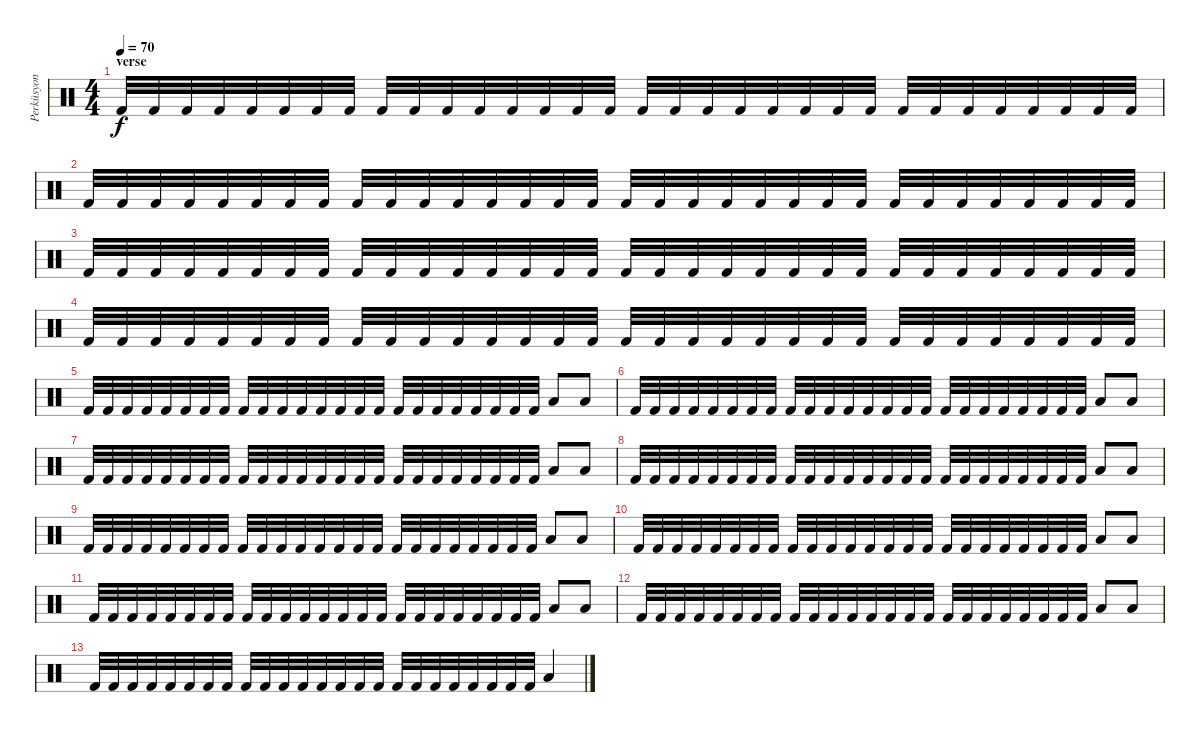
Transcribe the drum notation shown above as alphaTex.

\track ("Perküsyon" "Perküsyon") {instrument percussion}
\staff {score}
\articulation defaults
\ts (4 4)
\section ("" "verse")
\tempo 70
\clef neutral
\ks c "Kick (hit) 2".32{dy f volume 10} "Kick (hit) 2".32 "Kick (hit) 2".32 "Kick (hit) 2".32 "Kick (hit) 2".32{volume 13} "Kick (hit) 2".32 "Kick (hit) 2".32 "Kick (hit) 2".32 "Kick (hit) 2".32{volume 10} "Kick (hit) 2".32 "Kick (hit) 2".32 "Kick (hit) 2".32 "Kick (hit) 2".32{volume 8} "Kick (hit) 2".32 "Kick (hit) 2".32 "Kick (hit) 2".32 "Kick (hit) 2".32{volume 5} "Kick (hit) 2".32 "Kick (hit) 2".32 "Kick (hit) 2".32 "Kick (hit) 2".32{volume 3} "Kick (hit) 2".32 "Kick (hit) 2".32 "Kick (hit) 2".32 "Kick (hit) 2".32{volume 1} "Kick (hit) 2".32 "Kick (hit) 2".32 "Kick (hit) 2".32 "Kick (hit) 2".32{volume 0} "Kick (hit) 2".32 "Kick (hit) 2".32 "Kick (hit) 2".32
|
"Kick (hit) 2".32{volume 10} "Kick (hit) 2".32 "Kick (hit) 2".32 "Kick (hit) 2".32 "Kick (hit) 2".32{volume 13} "Kick (hit) 2".32 "Kick (hit) 2".32 "Kick (hit) 2".32 "Kick (hit) 2".32{volume 10} "Kick (hit) 2".32 "Kick (hit) 2".32 "Kick (hit) 2".32 "Kick (hit) 2".32{volume 8} "Kick (hit) 2".32 "Kick (hit) 2".32 "Kick (hit) 2".32 "Kick (hit) 2".32{volume 5} "Kick (hit) 2".32 "Kick (hit) 2".32 "Kick (hit) 2".32 "Kick (hit) 2".32{volume 3} "Kick (hit) 2".32 "Kick (hit) 2".32 "Kick (hit) 2".32 "Kick (hit) 2".32{volume 1} "Kick (hit) 2".32 "Kick (hit) 2".32 "Kick (hit) 2".32 "Kick (hit) 2".32{volume 0} "Kick (hit) 2".32 "Kick (hit) 2".32 "Kick (hit) 2".32 |
"Kick (hit) 2".32{volume 10} "Kick (hit) 2".32 "Kick (hit) 2".32 "Kick (hit) 2".32 "Kick (hit) 2".32{volume 13} "Kick (hit) 2".32 "Kick (hit) 2".32 "Kick (hit) 2".32 "Kick (hit) 2".32{volume 10} "Kick (hit) 2".32 "Kick (hit) 2".32 "Kick (hit) 2".32 "Kick (hit) 2".32{volume 8} "Kick (hit) 2".32 "Kick (hit) 2".32 "Kick (hit) 2".32 "Kick (hit) 2".32{volume 5} "Kick (hit) 2".32 "Kick (hit) 2".32 "Kick (hit) 2".32 "Kick (hit) 2".32{volume 3} "Kick (hit) 2".32 "Kick (hit) 2".32 "Kick (hit) 2".32 "Kick (hit) 2".32{volume 1} "Kick (hit) 2".32 "Kick (hit) 2".32 "Kick (hit) 2".32 "Kick (hit) 2".32{volume 0} "Kick (hit) 2".32 "Kick (hit) 2".32 "Kick (hit) 2".32 |
"Kick (hit) 2".32{volume 10} "Kick (hit) 2".32 "Kick (hit) 2".32 "Kick (hit) 2".32 "Kick (hit) 2".32{volume 13} "Kick (hit) 2".32 "Kick (hit) 2".32 "Kick (hit) 2".32 "Kick (hit) 2".32{volume 10} "Kick (hit) 2".32 "Kick (hit) 2".32 "Kick (hit) 2".32 "Kick (hit) 2".32{volume 8} "Kick (hit) 2".32 "Kick (hit) 2".32 "Kick (hit) 2".32 "Kick (hit) 2".32{volume 5} "Kick (hit) 2".32 "Kick (hit) 2".32 "Kick (hit) 2".32 "Kick (hit) 2".32{volume 3} "Kick (hit) 2".32 "Kick (hit) 2".32 "Kick (hit) 2".32 "Kick (hit) 2".32{volume 1} "Kick (hit) 2".32 "Kick (hit) 2".32 "Kick (hit) 2".32 "Kick (hit) 2".32{volume 0} "Kick (hit) 2".32 "Kick (hit) 2".32 "Kick (hit) 2".32 |
"Kick (hit) 2".32{volume 10} "Kick (hit) 2".32 "Kick (hit) 2".32 "Kick (hit) 2".32 "Kick (hit) 2".32{volume 13} "Kick (hit) 2".32 "Kick (hit) 2".32 "Kick (hit) 2".32 "Kick (hit) 2".32{volume 10} "Kick (hit) 2".32 "Kick (hit) 2".32 "Kick (hit) 2".32 "Kick (hit) 2".32{volume 8} "Kick (hit) 2".32 "Kick (hit) 2".32 "Kick (hit) 2".32 "Kick (hit) 2".32{volume 5} "Kick (hit) 2".32 "Kick (hit) 2".32 "Kick (hit) 2".32 "Kick (hit) 2".32{volume 3} "Kick (hit) 2".32 "Kick (hit) 2".32 "Kick (hit) 2".32 "Low Floor Tom (hit)".8{volume 13} "Low Floor Tom (hit)".8 |
"Kick (hit) 2".32{volume 10} "Kick (hit) 2".32 "Kick (hit) 2".32 "Kick (hit) 2".32 "Kick (hit) 2".32{volume 13} "Kick (hit) 2".32 "Kick (hit) 2".32 "Kick (hit) 2".32 "Kick (hit) 2".32{volume 10} "Kick (hit) 2".32 "Kick (hit) 2".32 "Kick (hit) 2".32 "Kick (hit) 2".32{volume 8} "Kick (hit) 2".32 "Kick (hit) 2".32 "Kick (hit) 2".32 "Kick (hit) 2".32{volume 5} "Kick (hit) 2".32 "Kick (hit) 2".32 "Kick (hit) 2".32 "Kick (hit) 2".32{volume 3} "Kick (hit) 2".32 "Kick (hit) 2".32 "Kick (hit) 2".32 "Low Floor Tom (hit)".8{volume 13} "Low Floor Tom (hit)".8 |
"Kick (hit) 2".32{volume 10} "Kick (hit) 2".32 "Kick (hit) 2".32 "Kick (hit) 2".32 "Kick (hit) 2".32{volume 13} "Kick (hit) 2".32 "Kick (hit) 2".32 "Kick (hit) 2".32 "Kick (hit) 2".32{volume 10} "Kick (hit) 2".32 "Kick (hit) 2".32 "Kick (hit) 2".32 "Kick (hit) 2".32{volume 8} "Kick (hit) 2".32 "Kick (hit) 2".32 "Kick (hit) 2".32 "Kick (hit) 2".32{volume 5} "Kick (hit) 2".32 "Kick (hit) 2".32 "Kick (hit) 2".32 "Kick (hit) 2".32{volume 3} "Kick (hit) 2".32 "Kick (hit) 2".32 "Kick (hit) 2".32 "Low Floor Tom (hit)".8{volume 13} "Low Floor Tom (hit)".8 |
"Kick (hit) 2".32{volume 10} "Kick (hit) 2".32 "Kick (hit) 2".32 "Kick (hit) 2".32 "Kick (hit) 2".32{volume 13} "Kick (hit) 2".32 "Kick (hit) 2".32 "Kick (hit) 2".32 "Kick (hit) 2".32{volume 10} "Kick (hit) 2".32 "Kick (hit) 2".32 "Kick (hit) 2".32 "Kick (hit) 2".32{volume 8} "Kick (hit) 2".32 "Kick (hit) 2".32 "Kick (hit) 2".32 "Kick (hit) 2".32{volume 5} "Kick (hit) 2".32 "Kick (hit) 2".32 "Kick (hit) 2".32 "Kick (hit) 2".32{volume 3} "Kick (hit) 2".32 "Kick (hit) 2".32 "Kick (hit) 2".32 "Low Floor Tom (hit)".8{volume 13} "Low Floor Tom (hit)".8 |
"Kick (hit) 2".32{volume 10} "Kick (hit) 2".32 "Kick (hit) 2".32 "Kick (hit) 2".32 "Kick (hit) 2".32{volume 13} "Kick (hit) 2".32 "Kick (hit) 2".32 "Kick (hit) 2".32 "Kick (hit) 2".32{volume 10} "Kick (hit) 2".32 "Kick (hit) 2".32 "Kick (hit) 2".32 "Kick (hit) 2".32{volume 8} "Kick (hit) 2".32 "Kick (hit) 2".32 "Kick (hit) 2".32 "Kick (hit) 2".32{volume 5} "Kick (hit) 2".32 "Kick (hit) 2".32 "Kick (hit) 2".32 "Kick (hit) 2".32{volume 3} "Kick (hit) 2".32 "Kick (hit) 2".32 "Kick (hit) 2".32 "Low Floor Tom (hit)".8{volume 13} "Low Floor Tom (hit)".8 |
"Kick (hit) 2".32{volume 10} "Kick (hit) 2".32 "Kick (hit) 2".32 "Kick (hit) 2".32 "Kick (hit) 2".32{volume 13} "Kick (hit) 2".32 "Kick (hit) 2".32 "Kick (hit) 2".32 "Kick (hit) 2".32{volume 10} "Kick (hit) 2".32 "Kick (hit) 2".32 "Kick (hit) 2".32 "Kick (hit) 2".32{volume 8} "Kick (hit) 2".32 "Kick (hit) 2".32 "Kick (hit) 2".32 "Kick (hit) 2".32{volume 5} "Kick (hit) 2".32 "Kick (hit) 2".32 "Kick (hit) 2".32 "Kick (hit) 2".32{volume 3} "Kick (hit) 2".32 "Kick (hit) 2".32 "Kick (hit) 2".32 "Low Floor Tom (hit)".8{volume 13} "Low Floor Tom (hit)".8 |
"Kick (hit) 2".32{volume 10} "Kick (hit) 2".32 "Kick (hit) 2".32 "Kick (hit) 2".32 "Kick (hit) 2".32{volume 13} "Kick (hit) 2".32 "Kick (hit) 2".32 "Kick (hit) 2".32 "Kick (hit) 2".32{volume 10} "Kick (hit) 2".32 "Kick (hit) 2".32 "Kick (hit) 2".32 "Kick (hit) 2".32{volume 8} "Kick (hit) 2".32 "Kick (hit) 2".32 "Kick (hit) 2".32 "Kick (hit) 2".32{volume 5} "Kick (hit) 2".32 "Kick (hit) 2".32 "Kick (hit) 2".32 "Kick (hit) 2".32{volume 3} "Kick (hit) 2".32 "Kick (hit) 2".32 "Kick (hit) 2".32 "Low Floor Tom (hit)".8{volume 13} "Low Floor Tom (hit)".8 |
"Kick (hit) 2".32{volume 10} "Kick (hit) 2".32 "Kick (hit) 2".32 "Kick (hit) 2".32 "Kick (hit) 2".32{volume 13} "Kick (hit) 2".32 "Kick (hit) 2".32 "Kick (hit) 2".32 "Kick (hit) 2".32{volume 10} "Kick (hit) 2".32 "Kick (hit) 2".32 "Kick (hit) 2".32 "Kick (hit) 2".32{volume 8} "Kick (hit) 2".32 "Kick (hit) 2".32 "Kick (hit) 2".32 "Kick (hit) 2".32{volume 5} "Kick (hit) 2".32 "Kick (hit) 2".32 "Kick (hit) 2".32 "Kick (hit) 2".32{volume 3} "Kick (hit) 2".32 "Kick (hit) 2".32 "Kick (hit) 2".32 "Low Floor Tom (hit)".8{volume 13} "Low Floor Tom (hit)".8 |
"Kick (hit) 2".32{volume 10} "Kick (hit) 2".32 "Kick (hit) 2".32 "Kick (hit) 2".32 "Kick (hit) 2".32{volume 13} "Kick (hit) 2".32 "Kick (hit) 2".32 "Kick (hit) 2".32 "Kick (hit) 2".32{volume 10} "Kick (hit) 2".32 "Kick (hit) 2".32 "Kick (hit) 2".32 "Kick (hit) 2".32{volume 8} "Kick (hit) 2".32 "Kick (hit) 2".32 "Kick (hit) 2".32 "Kick (hit) 2".32{volume 5} "Kick (hit) 2".32 "Kick (hit) 2".32 "Kick (hit) 2".32 "Kick (hit) 2".32{volume 3} "Kick (hit) 2".32 "Kick (hit) 2".32 "Kick (hit) 2".32 "Low Floor Tom (hit)".4{volume 13}
